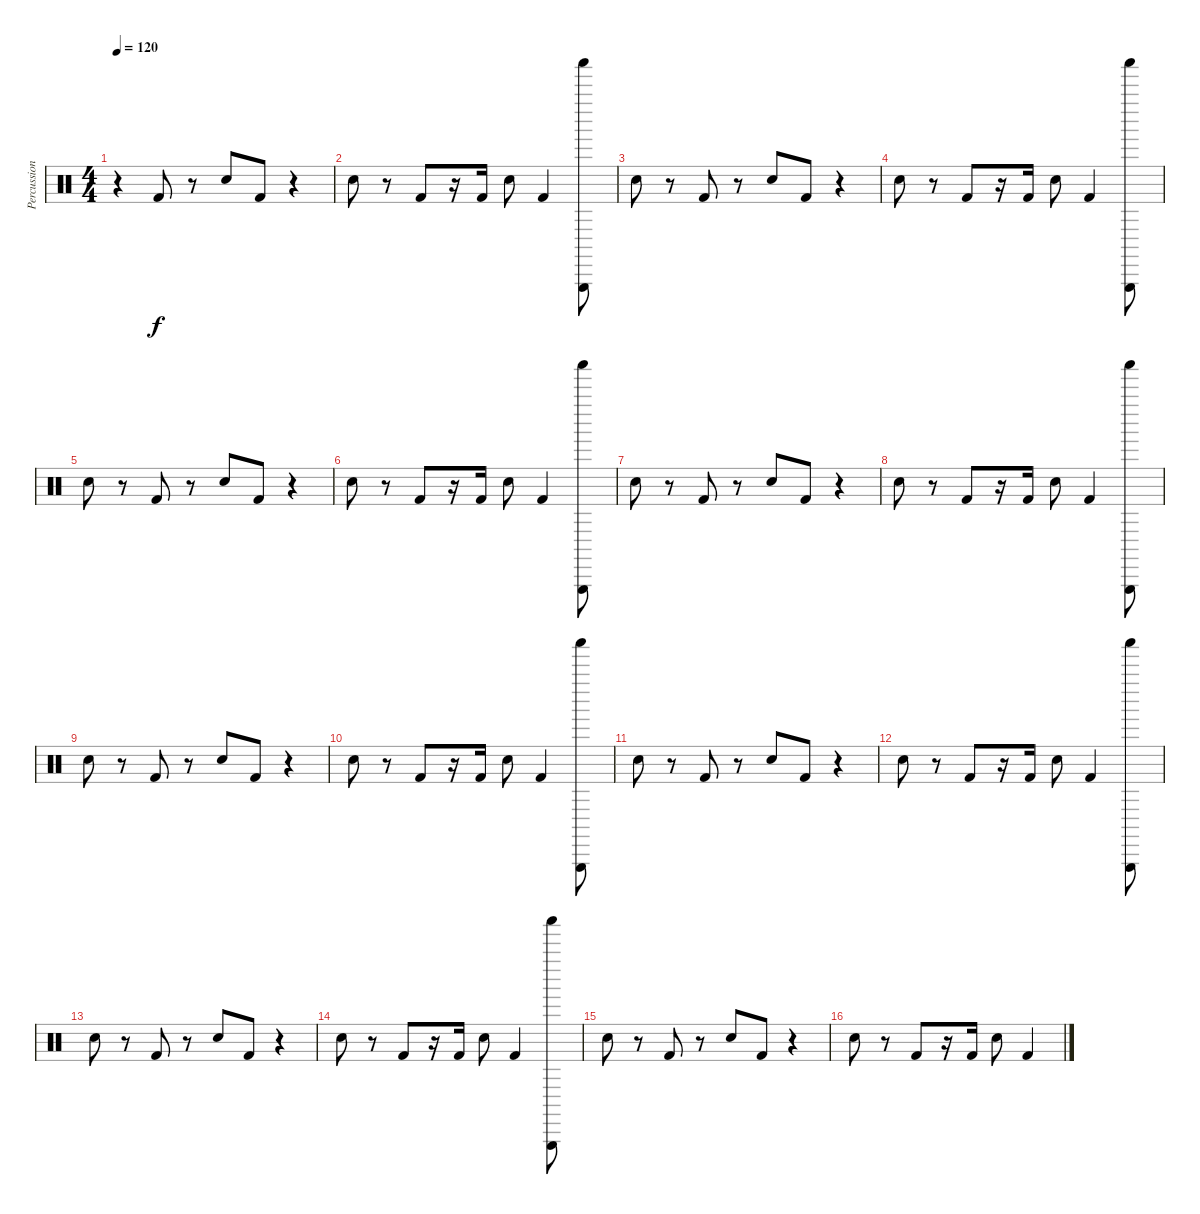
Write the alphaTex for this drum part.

\track ("Percussion" "Percussion") {instrument percussion}
\staff {score}
\articulation defaults
\ts (4 4)
\tempo 120
\clef neutral
\ks c
r.4{dy f} "Kick (hit) 2".8 r.8 "Hand Clap (hit)".8 "Kick (hit) 2".8 r.4 |
"Hand Clap (hit)".8 r.8 "Kick (hit) 2".8 r.16 "Kick (hit) 2".16 "Hand Clap (hit)".8 "Kick (hit) 2".4 ("Shaker (hit)" "Triangle (hit)").8 |
"Hand Clap (hit)".8 r.8 "Kick (hit) 2".8 r.8 "Hand Clap (hit)".8 "Kick (hit) 2".8 r.4 |
"Hand Clap (hit)".8 r.8 "Kick (hit) 2".8 r.16 "Kick (hit) 2".16 "Hand Clap (hit)".8 "Kick (hit) 2".4 ("Shaker (hit)" "Triangle (hit)").8 |
"Hand Clap (hit)".8 r.8 "Kick (hit) 2".8 r.8 "Hand Clap (hit)".8 "Kick (hit) 2".8 r.4 |
"Hand Clap (hit)".8 r.8 "Kick (hit) 2".8 r.16 "Kick (hit) 2".16 "Hand Clap (hit)".8 "Kick (hit) 2".4 ("Shaker (hit)" "Triangle (hit)").8 |
"Hand Clap (hit)".8 r.8 "Kick (hit) 2".8 r.8 "Hand Clap (hit)".8 "Kick (hit) 2".8 r.4 |
"Hand Clap (hit)".8 r.8 "Kick (hit) 2".8 r.16 "Kick (hit) 2".16 "Hand Clap (hit)".8 "Kick (hit) 2".4 ("Shaker (hit)" "Triangle (hit)").8 |
"Hand Clap (hit)".8 r.8 "Kick (hit) 2".8 r.8 "Hand Clap (hit)".8 "Kick (hit) 2".8 r.4 |
"Hand Clap (hit)".8 r.8 "Kick (hit) 2".8 r.16 "Kick (hit) 2".16 "Hand Clap (hit)".8 "Kick (hit) 2".4 ("Shaker (hit)" "Triangle (hit)").8 |
"Hand Clap (hit)".8 r.8 "Kick (hit) 2".8 r.8 "Hand Clap (hit)".8 "Kick (hit) 2".8 r.4 |
"Hand Clap (hit)".8 r.8 "Kick (hit) 2".8 r.16 "Kick (hit) 2".16 "Hand Clap (hit)".8 "Kick (hit) 2".4 ("Shaker (hit)" "Triangle (hit)").8 |
"Hand Clap (hit)".8 r.8 "Kick (hit) 2".8 r.8 "Hand Clap (hit)".8 "Kick (hit) 2".8 r.4 |
"Hand Clap (hit)".8 r.8 "Kick (hit) 2".8 r.16 "Kick (hit) 2".16 "Hand Clap (hit)".8 "Kick (hit) 2".4 ("Shaker (hit)" "Triangle (hit)").8 |
"Hand Clap (hit)".8 r.8 "Kick (hit) 2".8 r.8 "Hand Clap (hit)".8 "Kick (hit) 2".8 r.4 |
"Hand Clap (hit)".8 r.8 "Kick (hit) 2".8 r.16 "Kick (hit) 2".16 "Hand Clap (hit)".8 "Kick (hit) 2".4
